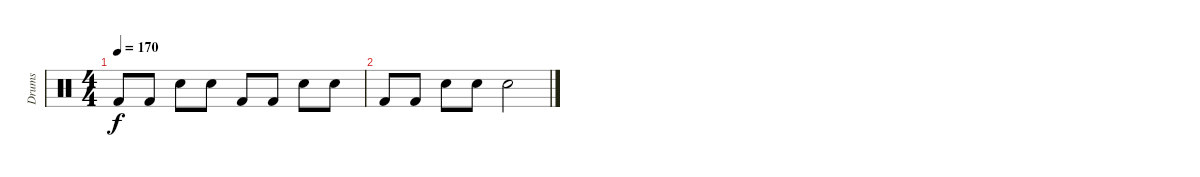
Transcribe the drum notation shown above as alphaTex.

\track ("Drums" "Drums") {instrument percussion}
\staff {score}
\articulation defaults
\ts (4 4)
\tempo 170
\clef neutral
\ks c "Kick (hit) 2".8{dy f} "Kick (hit) 2".8 "Snare (hit) 2".8 "Snare (hit) 2".8 "Kick (hit) 2".8 "Kick (hit) 2".8 "Snare (hit) 2".8 "Snare (hit) 2".8
|
"Kick (hit) 2".8 "Kick (hit) 2".8 "Snare (hit) 2".8 "Snare (hit) 2".8 "Snare (hit) 2".2
